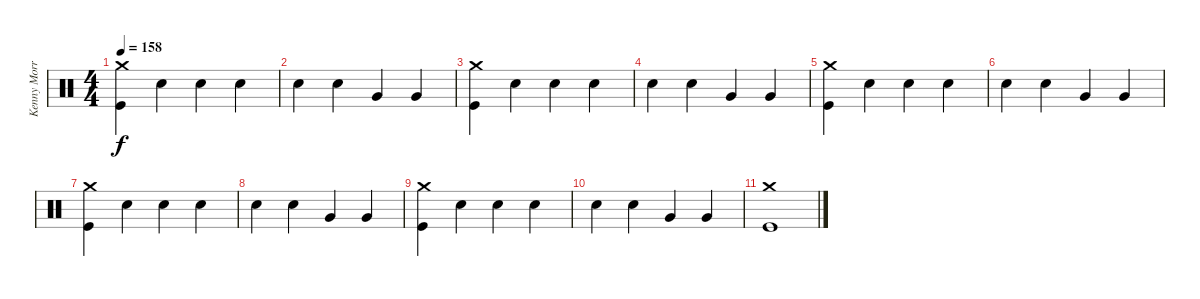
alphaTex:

\track ("Kenny Morris" "Kenny Morr") {instrument percussion}
\staff {score}
\articulation defaults
\ts (4 4)
\tempo 158
\clef neutral
\ks c
("Crash medium (hit)" "Kick (hit)").4{dy f} "Snare (hit) 2".4 "Snare (hit) 2".4 "Snare (hit) 2".4 |
"Snare (hit) 2".4 "Snare (hit) 2".4 "Very Low Tom (hit)".4 "Very Low Tom (hit)".4 |
("Crash medium (hit)" "Kick (hit)").4 "Snare (hit) 2".4 "Snare (hit) 2".4 "Snare (hit) 2".4 |
"Snare (hit) 2".4 "Snare (hit) 2".4 "Very Low Tom (hit)".4 "Very Low Tom (hit)".4 |
("Crash medium (hit)" "Kick (hit)").4 "Snare (hit) 2".4 "Snare (hit) 2".4 "Snare (hit) 2".4 |
"Snare (hit) 2".4 "Snare (hit) 2".4 "Very Low Tom (hit)".4 "Very Low Tom (hit)".4 |
("Crash medium (hit)" "Kick (hit)").4 "Snare (hit) 2".4 "Snare (hit) 2".4 "Snare (hit) 2".4 |
"Snare (hit) 2".4 "Snare (hit) 2".4 "Very Low Tom (hit)".4 "Very Low Tom (hit)".4 |
("Crash medium (hit)" "Kick (hit)").4 "Snare (hit) 2".4 "Snare (hit) 2".4 "Snare (hit) 2".4 |
"Snare (hit) 2".4 "Snare (hit) 2".4 "Very Low Tom (hit)".4 "Very Low Tom (hit)".4 |
("Crash medium (hit)" "Kick (hit)").1
